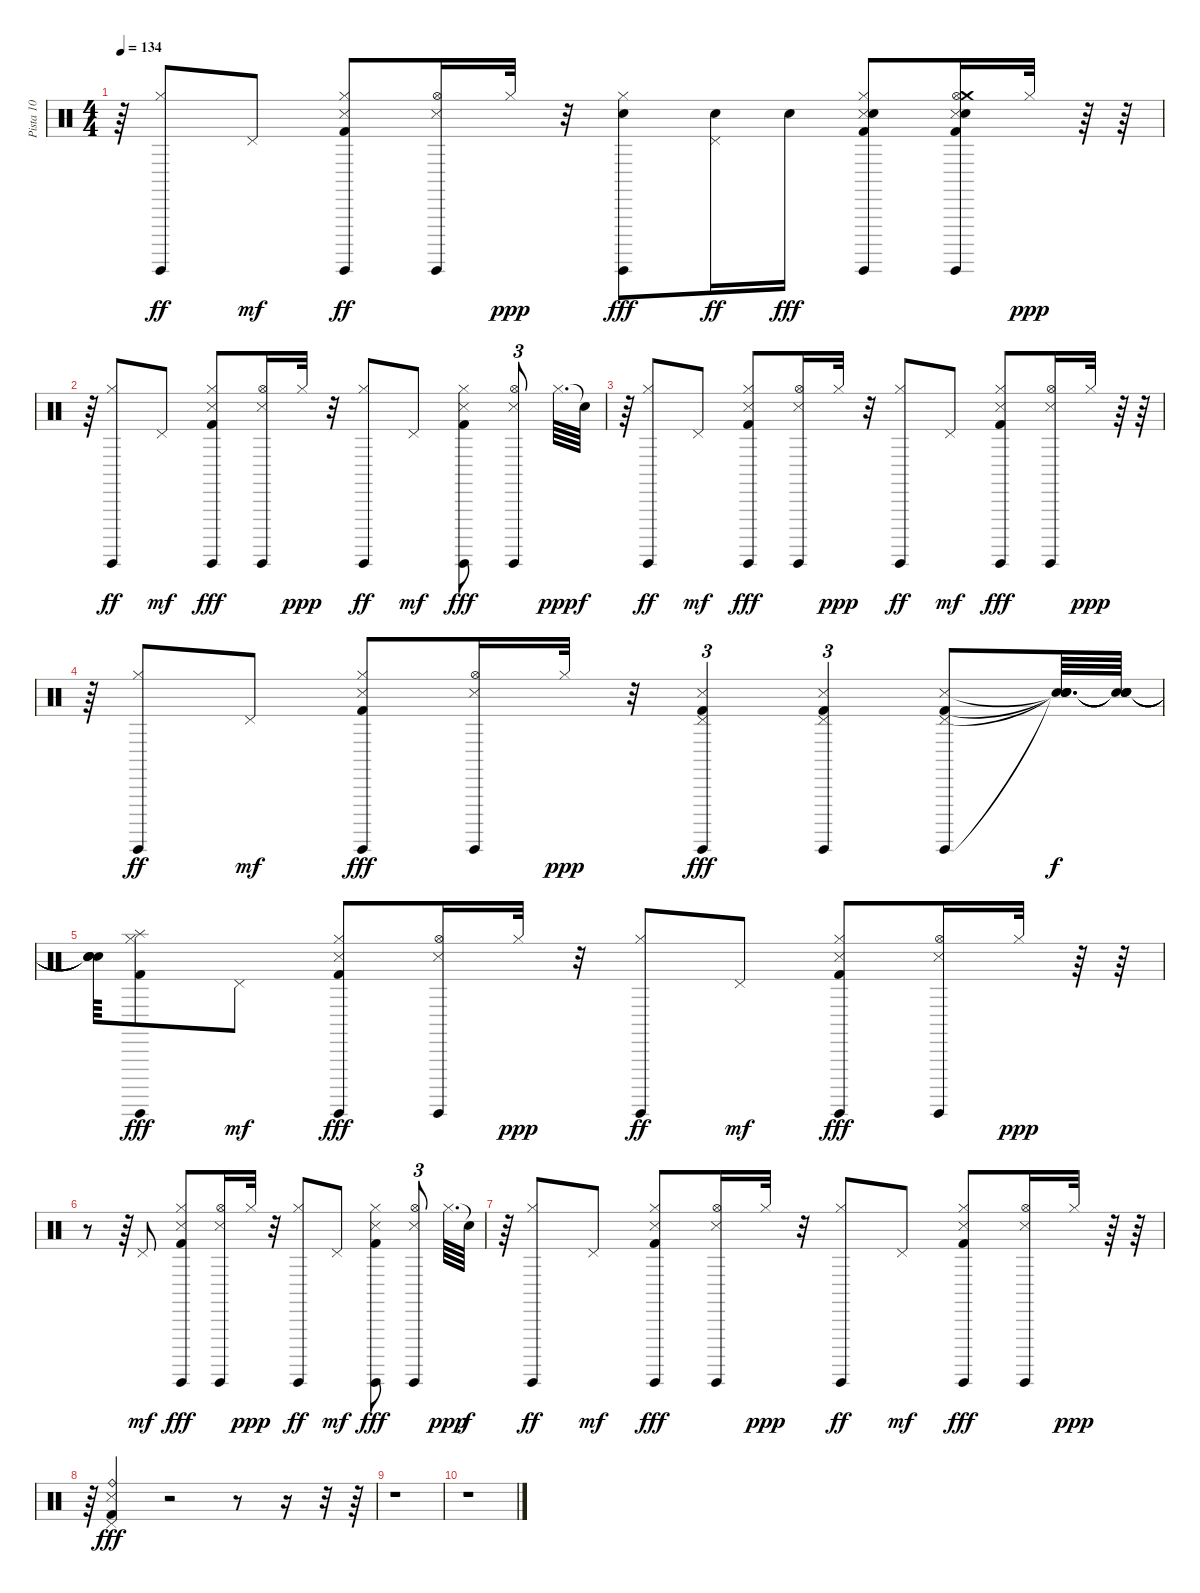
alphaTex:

\track ("Pista 10" "Pista 10") {instrument percussion}
\staff {score}
\articulation defaults
\ts (4 4)
\tempo 134
\clef neutral
\ks c
r.64{dy ppp} ("Hi-Hat (closed)" "Guiro (hit)").8{dy ff} "Pedal Hi-Hat (hit)".8{dy mf} ("Hi-Hat (closed)" "Snare (side stick) 3" "Kick (hit) 2" "Guiro (hit)").8{dy ff} ("Hi-Hat (open)" "Snare (side stick) 3" "Guiro (hit)").16 "Hi-Hat (closed)".32{dy ppp} r.32 ("Hi-Hat (closed)" "Guiro (hit)" "Snare (hit) 2").8{dy fff} ("Pedal Hi-Hat (hit)" "Electric Snare (hit)").16{dy ff} "Electric Snare (hit)".16{dy fff} ("Hi-Hat (closed)" "Snare (side stick) 3" "Kick (hit) 2" "Guiro (hit)" "Snare (hit) 2").8 ("Hi-Hat (open)" "Snare (side stick) 3" "Guiro (hit)" "Kick (hit) 2" "Electric Snare (hit)" "Crash medium (hit)").16 "Hi-Hat (closed)".32{dy ppp} r.64 r.64 |
r.64 ("Guiro (hit)" "Hi-Hat (closed)").8{dy ff} "Pedal Hi-Hat (hit)".8{dy mf} ("Guiro (hit)" "Hi-Hat (closed)" "Kick (hit) 2" "Snare (side stick) 3").8{dy fff} ("Guiro (hit)" "Hi-Hat (open)" "Snare (side stick) 3").16 "Hi-Hat (closed)".32{dy ppp} r.32 ("Guiro (hit)" "Hi-Hat (closed)").8{dy ff} "Pedal Hi-Hat (hit)".8{dy mf} ("Guiro (hit)" "Hi-Hat (closed)" "Kick (hit) 2" "Snare (side stick) 3").8{dy fff} ("Guiro (hit)" "Hi-Hat (open)" "Snare (side stick) 3").8{tu (3 2)} "Hi-Hat (closed)".64{d dy ppp} "Snare (hit)"{t}.64{dy f} |
r.64 ("Guiro (hit)" "Hi-Hat (closed)").8{dy ff} "Pedal Hi-Hat (hit)".8{dy mf} ("Guiro (hit)" "Hi-Hat (closed)" "Kick (hit) 2" "Snare (side stick) 3").8{dy fff} ("Guiro (hit)" "Hi-Hat (open)" "Snare (side stick) 3").16 "Hi-Hat (closed)".32{dy ppp} r.32 ("Guiro (hit)" "Hi-Hat (closed)").8{dy ff} "Pedal Hi-Hat (hit)".8{dy mf} ("Guiro (hit)" "Hi-Hat (closed)" "Kick (hit) 2" "Snare (side stick) 3").8{dy fff} ("Guiro (hit)" "Hi-Hat (open)" "Snare (side stick) 3").16 "Hi-Hat (closed)".32{dy ppp} r.64 r.64 |
r.64 ("Guiro (hit)" "Hi-Hat (closed)").8{dy ff} "Pedal Hi-Hat (hit)".8{dy mf} ("Guiro (hit)" "Hi-Hat (closed)" "Kick (hit) 2" "Snare (side stick) 3").8{dy fff} ("Guiro (hit)" "Hi-Hat (open)" "Snare (side stick) 3").16 "Hi-Hat (closed)".32{dy ppp} r.32 ("Snare (side stick) 3" "Kick (hit) 2" "Pedal Hi-Hat (hit)" "Guiro (hit)").4{tu (3 2) dy fff} ("Snare (side stick) 3" "Kick (hit) 2" "Pedal Hi-Hat (hit)" "Guiro (hit)").4{tu (3 2)} ("Snare (side stick) 3" "Kick (hit) 2" "Pedal Hi-Hat (hit)" "Guiro (hit)").8 ("Snare (hit)"{t} "Snare (hit)"{t} "Snare (hit)"{t} "Snare (hit)"{t}).64{d dy f} ("Snare (hit)"{t} "Snare (hit)"{t} "Snare (hit)"{t} "Snare (hit)"{t}).64 |
("Snare (hit)"{t} "Snare (hit)"{t} "Snare (hit)"{t} "Snare (hit)"{t}).64 ("Guiro (hit)" "Hi-Hat (closed)" "Splash (hit)" "Kick (hit) 2").8{dy fff} "Pedal Hi-Hat (hit)".8{dy mf} ("Guiro (hit)" "Hi-Hat (closed)" "Kick (hit) 2" "Snare (side stick) 3").8{dy fff} ("Guiro (hit)" "Hi-Hat (open)" "Snare (side stick) 3").16 "Hi-Hat (closed)".32{dy ppp} r.32 ("Guiro (hit)" "Hi-Hat (closed)").8{dy ff} "Pedal Hi-Hat (hit)".8{dy mf} ("Guiro (hit)" "Hi-Hat (closed)" "Kick (hit) 2" "Snare (side stick) 3").8{dy fff} ("Guiro (hit)" "Hi-Hat (open)" "Snare (side stick) 3").16 "Hi-Hat (closed)".32{dy ppp} r.64 r.64 |
r.8 r.64 "Pedal Hi-Hat (hit)".8{dy mf} ("Hi-Hat (closed)" "Guiro (hit)" "Kick (hit) 2" "Snare (side stick) 3").8{dy fff} ("Hi-Hat (open)" "Guiro (hit)" "Snare (side stick) 3").16 "Hi-Hat (closed)".32{dy ppp} r.32 ("Hi-Hat (closed)" "Guiro (hit)").8{dy ff} "Pedal Hi-Hat (hit)".8{dy mf} ("Hi-Hat (closed)" "Guiro (hit)" "Kick (hit) 2" "Snare (side stick) 3").8{dy fff} ("Hi-Hat (open)" "Guiro (hit)" "Snare (side stick) 3").8{tu (3 2)} "Hi-Hat (closed)".64{d dy ppp} "Snare (hit)"{t}.64{dy f} |
r.64 ("Hi-Hat (closed)" "Guiro (hit)").8{dy ff} "Pedal Hi-Hat (hit)".8{dy mf} ("Hi-Hat (closed)" "Guiro (hit)" "Kick (hit) 2" "Snare (side stick) 3").8{dy fff} ("Hi-Hat (open)" "Guiro (hit)" "Snare (side stick) 3").16 "Hi-Hat (closed)".32{dy ppp} r.32 ("Hi-Hat (closed)" "Guiro (hit)").8{dy ff} "Pedal Hi-Hat (hit)".8{dy mf} ("Hi-Hat (closed)" "Guiro (hit)" "Kick (hit) 2" "Snare (side stick) 3").8{dy fff} ("Hi-Hat (open)" "Guiro (hit)" "Snare (side stick) 3").16 "Hi-Hat (closed)".32{dy ppp} r.64 r.64 |
r.64 ("Snare (side stick) 3" "Pedal Hi-Hat (hit)" "Kick (hit) 2" "Ride (bell)").4{dy fff} r.2 r.8 r.16 r.32 r.64 |
r.1 |
r.1
